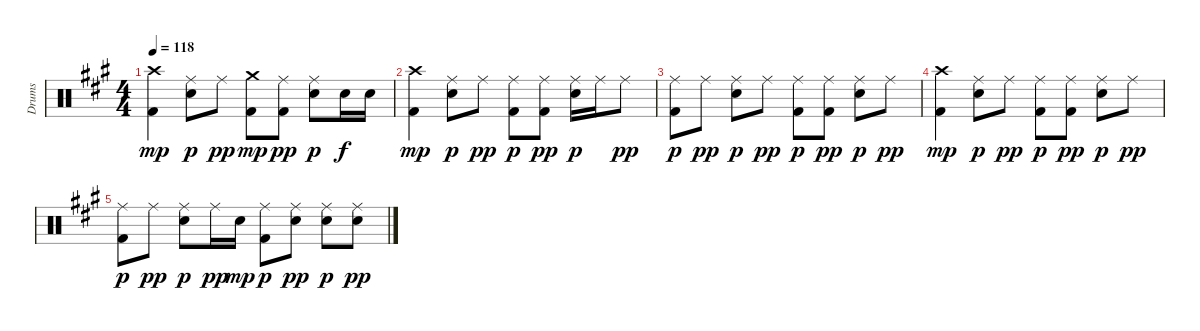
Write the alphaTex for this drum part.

\track ("Drums" "Drums") {instrument percussion}
\staff {score}
\articulation defaults
\ts (4 4)
\tempo 118
\clef neutral
\ks a
("Crash high (hit)" "Kick (hit) 2").4{dy mp} ("Electric Snare (hit)" "Ride (middle)").8{dy p} "Ride (middle)".8{dy pp} ("Crash medium (hit)" "Kick (hit) 2").8{dy mp} ("Kick (hit) 2" "Ride (middle)").8{dy pp} ("Electric Snare (hit)" "Ride (middle)").8{dy p} "Electric Snare (hit)".16{dy f} "Electric Snare (hit)".16 |
("Crash high (hit)" "Kick (hit) 2").4{dy mp} ("Electric Snare (hit)" "Ride (middle)").8{dy p} "Ride (middle)".8{dy pp} ("Kick (hit) 2" "Ride (middle)").8{dy p} ("Kick (hit) 2" "Ride (middle)").8{dy pp} ("Electric Snare (hit)" "Ride (middle)").16{dy p} "Ride (middle)".16 "Ride (middle)".8{dy pp} |
("Kick (hit) 2" "Ride (middle)").8{dy p} "Ride (middle)".8{dy pp} ("Electric Snare (hit)" "Ride (middle)").8{dy p} "Ride (middle)".8{dy pp} ("Kick (hit) 2" "Ride (middle)").8{dy p} ("Kick (hit) 2" "Ride (middle)").8{dy pp} ("Electric Snare (hit)" "Ride (middle)").8{dy p} "Ride (middle)".8{dy pp} |
("Crash high (hit)" "Kick (hit) 2").4{dy mp} ("Electric Snare (hit)" "Ride (middle)").8{dy p} "Ride (middle)".8{dy pp} ("Kick (hit) 2" "Ride (middle)").8{dy p} ("Kick (hit) 2" "Ride (middle)").8{dy pp} ("Electric Snare (hit)" "Ride (middle)").8{dy p} "Ride (middle)".8{dy pp} |
("Kick (hit) 2" "Ride (middle)").8{dy p} "Ride (middle)".8{dy pp} ("Electric Snare (hit)" "Ride (middle)").8{dy p} "Ride (middle)".16{dy pp} "Electric Snare (hit)".16{dy mp} ("Kick (hit) 2" "Ride (middle)").8{dy p} ("Electric Snare (hit)" "Ride (middle)").8{dy pp} ("Electric Snare (hit)" "Ride (middle)").8{dy p} ("Electric Snare (hit)" "Ride (middle)").8{dy pp}
